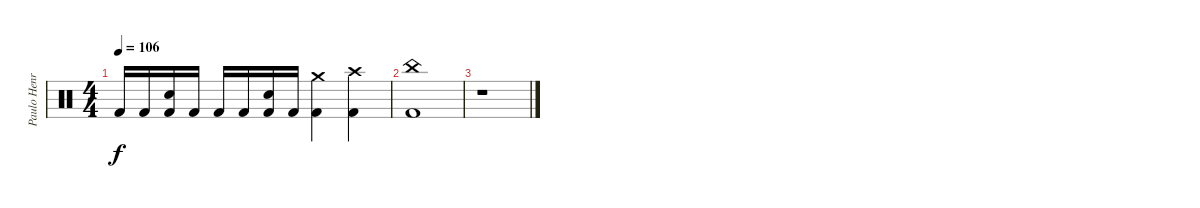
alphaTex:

\track ("Paulo Henrique" "Paulo Henr") {instrument percussion}
\staff {score}
\articulation defaults
\ts (4 4)
\tempo 106
\clef neutral
\ks c "Kick (hit) 2".16{dy f} "Kick (hit) 2".16
("Electric Snare (hit)" "Kick (hit) 2").16 "Kick (hit) 2".16 "Kick (hit) 2".16 "Kick (hit) 2".16 ("Electric Snare (hit)" "Kick (hit) 2").16 "Kick (hit) 2".16 ("Crash medium (hit)" "Kick (hit) 2").4 ("Crash high (hit)" "Kick (hit) 2").4 |
("China (hit)" "Kick (hit) 2").1 |
r.1
